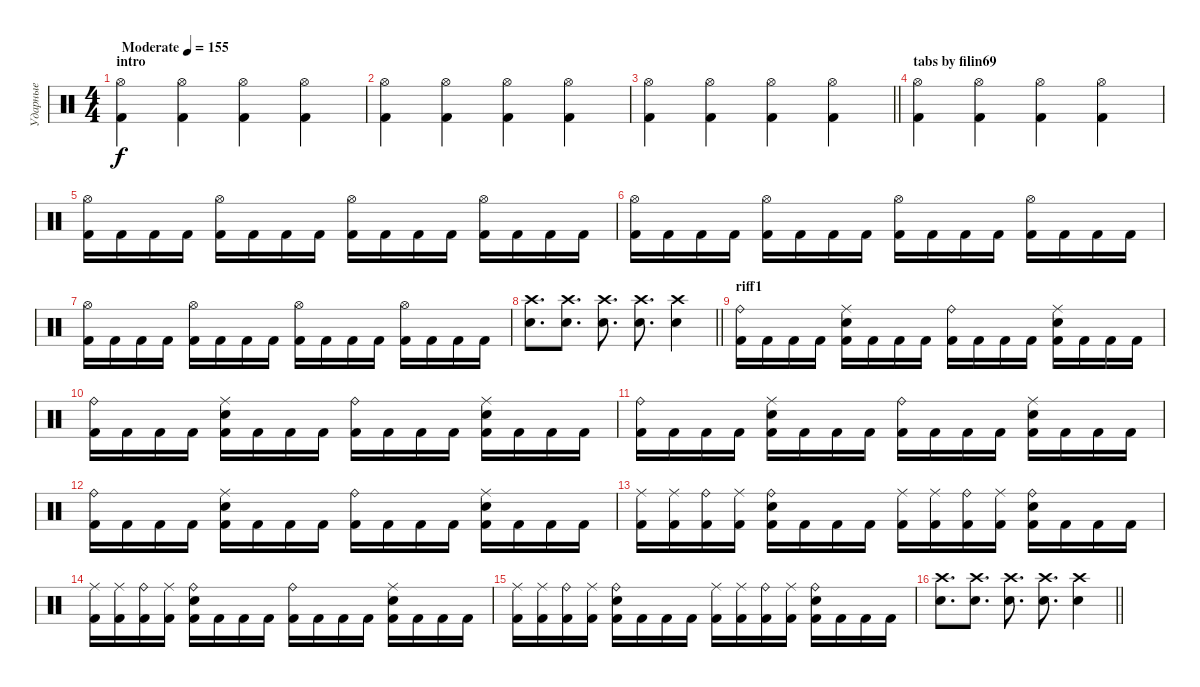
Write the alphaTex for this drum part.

\track ("Ударные" "Ударные") {instrument percussion}
\staff {score}
\articulation defaults
\ts (4 4)
\section ("" "intro")
\tempo (155 "Moderate")
\clef neutral
\ks c
("Hi-Hat (open)" "Kick (hit) 2").4{dy f} ("Hi-Hat (open)" "Kick (hit) 2").4 ("Hi-Hat (open)" "Kick (hit) 2").4 ("Hi-Hat (open)" "Kick (hit) 2").4 |
("Hi-Hat (open)" "Kick (hit) 2").4 ("Hi-Hat (open)" "Kick (hit) 2").4 ("Hi-Hat (open)" "Kick (hit) 2").4 ("Hi-Hat (open)" "Kick (hit) 2").4 |
\barLineRight lightlight
("Hi-Hat (open)" "Kick (hit) 2").4 ("Hi-Hat (open)" "Kick (hit) 2").4 ("Hi-Hat (open)" "Kick (hit) 2").4 ("Hi-Hat (open)" "Kick (hit) 2").4 |
\section ("" "tabs by filin69")
("Hi-Hat (open)" "Kick (hit) 2").4 ("Hi-Hat (open)" "Kick (hit) 2").4 ("Hi-Hat (open)" "Kick (hit) 2").4 ("Hi-Hat (open)" "Kick (hit) 2").4 |
("Hi-Hat (open)" "Kick (hit) 2").16 "Kick (hit) 2".16 "Kick (hit) 2".16 "Kick (hit) 2".16 ("Hi-Hat (open)" "Kick (hit) 2").16 "Kick (hit) 2".16 "Kick (hit) 2".16 "Kick (hit) 2".16 ("Hi-Hat (open)" "Kick (hit) 2").16 "Kick (hit) 2".16 "Kick (hit) 2".16 "Kick (hit) 2".16 ("Hi-Hat (open)" "Kick (hit) 2").16 "Kick (hit) 2".16 "Kick (hit) 2".16 "Kick (hit) 2".16 |
("Hi-Hat (open)" "Kick (hit) 2").16 "Kick (hit) 2".16 "Kick (hit) 2".16 "Kick (hit) 2".16 ("Hi-Hat (open)" "Kick (hit) 2").16 "Kick (hit) 2".16 "Kick (hit) 2".16 "Kick (hit) 2".16 ("Hi-Hat (open)" "Kick (hit) 2").16 "Kick (hit) 2".16 "Kick (hit) 2".16 "Kick (hit) 2".16 ("Hi-Hat (open)" "Kick (hit) 2").16 "Kick (hit) 2".16 "Kick (hit) 2".16 "Kick (hit) 2".16 |
("Hi-Hat (open)" "Kick (hit) 2").16 "Kick (hit) 2".16 "Kick (hit) 2".16 "Kick (hit) 2".16 ("Hi-Hat (open)" "Kick (hit) 2").16 "Kick (hit) 2".16 "Kick (hit) 2".16 "Kick (hit) 2".16 ("Hi-Hat (open)" "Kick (hit) 2").16 "Kick (hit) 2".16 "Kick (hit) 2".16 "Kick (hit) 2".16 ("Hi-Hat (open)" "Kick (hit) 2").16 "Kick (hit) 2".16 "Kick (hit) 2".16 "Kick (hit) 2".16 |
\barLineRight lightlight
("Crash high (hit)" "Electric Snare (hit)").8{d} ("Crash high (hit)" "Electric Snare (hit)").8{d} ("Crash high (hit)" "Electric Snare (hit)").8{d} ("Crash high (hit)" "Electric Snare (hit)").8{d} ("Crash high (hit)" "Electric Snare (hit)").4 |
\section ("" "riff1")
("Ride (bell)" "Kick (hit) 2").16 "Kick (hit) 2".16 "Kick (hit) 2".16 "Kick (hit) 2".16 ("Ride (middle)" "Electric Snare (hit)" "Kick (hit) 2").16 "Kick (hit) 2".16 "Kick (hit) 2".16 "Kick (hit) 2".16 ("Ride (bell)" "Kick (hit) 2").16 "Kick (hit) 2".16 "Kick (hit) 2".16 "Kick (hit) 2".16 ("Ride (middle)" "Electric Snare (hit)" "Kick (hit) 2").16 "Kick (hit) 2".16 "Kick (hit) 2".16 "Kick (hit) 2".16 |
("Ride (bell)" "Kick (hit) 2").16 "Kick (hit) 2".16 "Kick (hit) 2".16 "Kick (hit) 2".16 ("Ride (middle)" "Electric Snare (hit)" "Kick (hit) 2").16 "Kick (hit) 2".16 "Kick (hit) 2".16 "Kick (hit) 2".16 ("Ride (bell)" "Kick (hit) 2").16 "Kick (hit) 2".16 "Kick (hit) 2".16 "Kick (hit) 2".16 ("Ride (middle)" "Electric Snare (hit)" "Kick (hit) 2").16 "Kick (hit) 2".16 "Kick (hit) 2".16 "Kick (hit) 2".16 |
("Ride (bell)" "Kick (hit) 2").16 "Kick (hit) 2".16 "Kick (hit) 2".16 "Kick (hit) 2".16 ("Ride (middle)" "Electric Snare (hit)" "Kick (hit) 2").16 "Kick (hit) 2".16 "Kick (hit) 2".16 "Kick (hit) 2".16 ("Ride (bell)" "Kick (hit) 2").16 "Kick (hit) 2".16 "Kick (hit) 2".16 "Kick (hit) 2".16 ("Ride (middle)" "Electric Snare (hit)" "Kick (hit) 2").16 "Kick (hit) 2".16 "Kick (hit) 2".16 "Kick (hit) 2".16 |
("Ride (bell)" "Kick (hit) 2").16 "Kick (hit) 2".16 "Kick (hit) 2".16 "Kick (hit) 2".16 ("Ride (middle)" "Electric Snare (hit)" "Kick (hit) 2").16 "Kick (hit) 2".16 "Kick (hit) 2".16 "Kick (hit) 2".16 ("Ride (bell)" "Kick (hit) 2").16 "Kick (hit) 2".16 "Kick (hit) 2".16 "Kick (hit) 2".16 ("Ride (middle)" "Electric Snare (hit)" "Kick (hit) 2").16 "Kick (hit) 2".16 "Kick (hit) 2".16 "Kick (hit) 2".16 |
("Ride (middle)" "Kick (hit) 2").16 ("Ride (middle)" "Kick (hit) 2").16 ("Ride (bell)" "Kick (hit) 2").16 ("Ride (middle)" "Kick (hit) 2").16 ("Ride (bell)" "Electric Snare (hit)" "Kick (hit) 2").16 "Kick (hit) 2".16 "Kick (hit) 2".16 "Kick (hit) 2".16 ("Ride (middle)" "Kick (hit) 2").16 ("Ride (middle)" "Kick (hit) 2").16 ("Ride (bell)" "Kick (hit) 2").16 ("Ride (middle)" "Kick (hit) 2").16 ("Ride (bell)" "Electric Snare (hit)" "Kick (hit) 2").16 "Kick (hit) 2".16 "Kick (hit) 2".16 "Kick (hit) 2".16 |
("Ride (middle)" "Kick (hit) 2").16 ("Ride (middle)" "Kick (hit) 2").16 ("Ride (bell)" "Kick (hit) 2").16 ("Ride (middle)" "Kick (hit) 2").16 ("Ride (bell)" "Electric Snare (hit)" "Kick (hit) 2").16 "Kick (hit) 2".16 "Kick (hit) 2".16 "Kick (hit) 2".16 ("Ride (bell)" "Kick (hit) 2").16 "Kick (hit) 2".16 "Kick (hit) 2".16 "Kick (hit) 2".16 ("Ride (middle)" "Electric Snare (hit)" "Kick (hit) 2").16 "Kick (hit) 2".16 "Kick (hit) 2".16 "Kick (hit) 2".16 |
("Ride (middle)" "Kick (hit) 2").16 ("Ride (middle)" "Kick (hit) 2").16 ("Ride (bell)" "Kick (hit) 2").16 ("Ride (middle)" "Kick (hit) 2").16 ("Ride (bell)" "Electric Snare (hit)" "Kick (hit) 2").16 "Kick (hit) 2".16 "Kick (hit) 2".16 "Kick (hit) 2".16 ("Ride (middle)" "Kick (hit) 2").16 ("Ride (middle)" "Kick (hit) 2").16 ("Ride (bell)" "Kick (hit) 2").16 ("Ride (middle)" "Kick (hit) 2").16 ("Ride (bell)" "Electric Snare (hit)" "Kick (hit) 2").16 "Kick (hit) 2".16 "Kick (hit) 2".16 "Kick (hit) 2".16 |
\barLineRight lightlight
("Crash high (hit)" "Electric Snare (hit)").8{d} ("Crash high (hit)" "Electric Snare (hit)").8{d} ("Crash high (hit)" "Electric Snare (hit)").8{d} ("Crash high (hit)" "Electric Snare (hit)").8{d} ("Crash high (hit)" "Electric Snare (hit)").4
